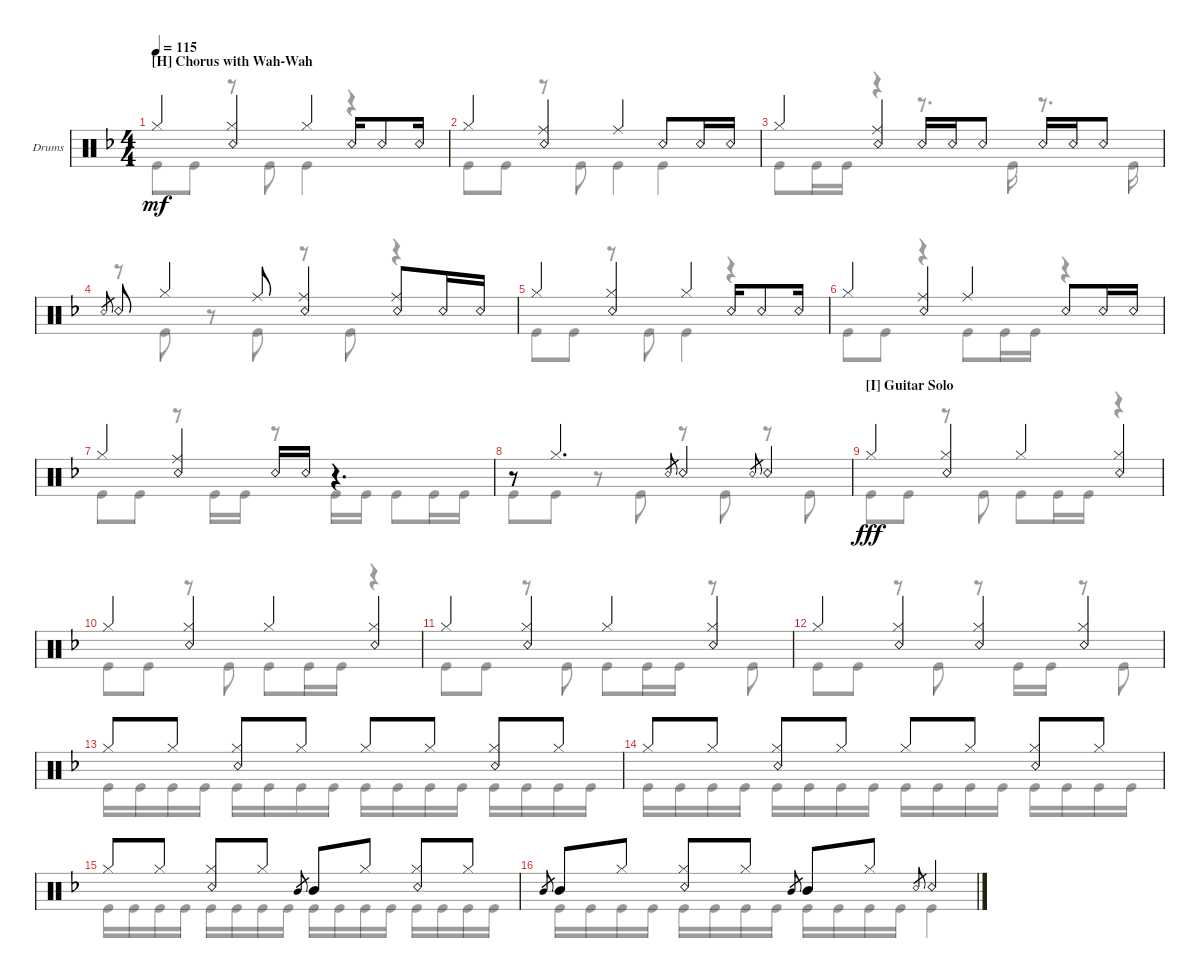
\defaultSystemsLayout 4
\bracketExtendMode groupsimilarinstruments
\firstSystemTrackNameOrientation horizontal
\otherSystemsTrackNameOrientation horizontal
\track ("Randy Castillo" "Drums") {instrument percussion}
\staff {score}
\articulation defaults
\voice
\ts (4 4)
\section ("H" "Chorus with Wah-Wah")
\tempo 115
\clef neutral
\ks f "Hi-Hat (closed)".4{dy mf}
("Hi-Hat (closed)" "Snare (rim shot)").4 "Hi-Hat (closed)".4 "Snare (rim shot)".16 "Snare (rim shot)".8 "Snare (rim shot)".16 |
"Hi-Hat (closed)".4 ("Snare (rim shot)" "Ride (middle)").4 "Ride (middle)".4 "Snare (rim shot)".8 "Snare (rim shot)".16 "Snare (rim shot)".16 |
"Hi-Hat (closed)".4 ("Ride (middle)" "Snare (rim shot)").4 "Snare (rim shot)".16 "Snare (rim shot)".16 "Snare (rim shot)".8 "Snare (rim shot)".16 "Snare (rim shot)".16 "Snare (rim shot)".8 |
"Snare (rim shot)".8{gr} "Snare (rim shot)".8 "Hi-Hat (closed)".4 "Ride (middle)".8 ("Ride (middle)" "Snare (rim shot)").4 ("Snare (rim shot)" "Ride (middle)").8 "Snare (rim shot)".16 "Snare (rim shot)".16 |
"Hi-Hat (closed)".4 ("Hi-Hat (closed)" "Snare (rim shot)").4 "Hi-Hat (closed)".4 "Snare (rim shot)".16 "Snare (rim shot)".8 "Snare (rim shot)".16 |
"Hi-Hat (closed)".4 ("Ride (middle)" "Snare (rim shot)").4 "Ride (middle)".4 "Snare (rim shot)".8 "Snare (rim shot)".16 "Snare (rim shot)".16 |
"Hi-Hat (closed)".4 ("Snare (rim shot)" "Ride (middle)").4 "Snare (rim shot)".16 "Snare (rim shot)".16 r.4{d} |
r.8 "Hi-Hat (closed)".4{d} "Snare (rim shot)".8{gr} "Snare (rim shot)".4 "Snare (rim shot)".8{gr} "Snare (rim shot)".4 |
\section ("I" "Guitar Solo")
"Hi-Hat (closed)".4{dy fff} ("Hi-Hat (closed)" "Snare (rim shot)").4 "Hi-Hat (closed)".4 ("Snare (rim shot)" "Hi-Hat (closed)").4 |
"Hi-Hat (closed)".4 ("Hi-Hat (closed)" "Snare (rim shot)").4 "Hi-Hat (closed)".4 ("Snare (rim shot)" "Hi-Hat (closed)").4 |
"Hi-Hat (closed)".4 ("Hi-Hat (closed)" "Snare (rim shot)").4 "Hi-Hat (closed)".4 ("Snare (rim shot)" "Hi-Hat (closed)").4 |
"Hi-Hat (closed)".4 ("Hi-Hat (closed)" "Snare (rim shot)").4 ("Hi-Hat (closed)" "Snare (rim shot)").4 ("Hi-Hat (closed)" "Snare (rim shot)").4 |
"Hi-Hat (closed)".8 "Hi-Hat (closed)".8 ("Hi-Hat (closed)" "Snare (rim shot)").8 "Hi-Hat (closed)".8 "Hi-Hat (closed)".8 "Hi-Hat (closed)".8 ("Hi-Hat (closed)" "Snare (rim shot)").8 "Hi-Hat (closed)".8 |
"Hi-Hat (closed)".8 "Hi-Hat (closed)".8 ("Hi-Hat (closed)" "Snare (rim shot)").8 "Hi-Hat (closed)".8 "Hi-Hat (closed)".8 "Hi-Hat (closed)".8 ("Hi-Hat (closed)" "Snare (rim shot)").8 "Hi-Hat (closed)".8 |
"Hi-Hat (closed)".8 "Hi-Hat (closed)".8 ("Hi-Hat (closed)" "Snare (rim shot)").8 "Hi-Hat (closed)".8 "Mid Tom (hit)".8{gr} "Mid Tom (hit)".8 "Hi-Hat (closed)".8 ("Hi-Hat (closed)" "Snare (rim shot)").8 "Hi-Hat (closed)".8 |
"Mid Tom (hit)".8{gr} "Mid Tom (hit)".8 "Hi-Hat (closed)".8 ("Hi-Hat (closed)" "Snare (rim shot)").8 "Hi-Hat (closed)".8 "Mid Tom (hit)".8{gr} "Mid Tom (hit)".8 "Hi-Hat (closed)".8 "Snare (rim shot)".8{gr} "Snare (rim shot)".4
\voice
\clef neutral
\ottava regular
\simile none
\ks f "Kick (hit)".8{dy mf} "Kick (hit)".8
r.8 "Kick (hit)".8 "Kick (hit)".4 r.4 |
"Kick (hit)".8 "Kick (hit)".8 r.8 "Kick (hit)".8 "Kick (hit)".4 "Kick (hit)".4 |
"Kick (hit)".8 "Kick (hit)".16 "Kick (hit)".16 r.4 r.8{d} "Kick (hit)".16 r.8{d} "Kick (hit)".16 |
r.8 "Kick (hit)".8 r.8 "Kick (hit)".8 r.8 "Kick (hit)".8 r.4 |
"Kick (hit)".8 "Kick (hit)".8 r.8 "Kick (hit)".8 "Kick (hit)".4 r.4 |
"Kick (hit)".8 "Kick (hit)".8 r.4 "Kick (hit)".8 "Kick (hit)".16 "Kick (hit)".16 r.4 |
"Kick (hit)".8 "Kick (hit)".8 r.8 "Kick (hit)".16 "Kick (hit)".16 r.8 "Kick (hit)".16 "Kick (hit)".16 "Kick (hit)".8 "Kick (hit)".16 "Kick (hit)".16 |
"Kick (hit)".8 "Kick (hit)".8 r.8 "Kick (hit)".8 r.8 "Kick (hit)".8 r.8 "Kick (hit)".8 |
"Kick (hit)".8{dy fff} "Kick (hit)".8 r.8 "Kick (hit)".8 "Kick (hit)".8 "Kick (hit)".16 "Kick (hit)".16 r.4 |
"Kick (hit)".8 "Kick (hit)".8 r.8 "Kick (hit)".8 "Kick (hit)".8 "Kick (hit)".16 "Kick (hit)".16 r.4 |
"Kick (hit)".8 "Kick (hit)".8 r.8 "Kick (hit)".8 "Kick (hit)".8 "Kick (hit)".16 "Kick (hit)".16 r.8 "Kick (hit)".8 |
"Kick (hit)".8 "Kick (hit)".8 r.8 "Kick (hit)".8 r.8 "Kick (hit)".16 "Kick (hit)".16 r.8 "Kick (hit)".8 |
"Kick (hit)".16 "Kick (hit)".16 "Kick (hit)".16 "Kick (hit)".16 "Kick (hit)".16 "Kick (hit)".16 "Kick (hit)".16 "Kick (hit)".16 "Kick (hit)".16 "Kick (hit)".16 "Kick (hit)".16 "Kick (hit)".16 "Kick (hit)".16 "Kick (hit)".16 "Kick (hit)".16 "Kick (hit)".16 |
"Kick (hit)".16 "Kick (hit)".16 "Kick (hit)".16 "Kick (hit)".16 "Kick (hit)".16 "Kick (hit)".16 "Kick (hit)".16 "Kick (hit)".16 "Kick (hit)".16 "Kick (hit)".16 "Kick (hit)".16 "Kick (hit)".16 "Kick (hit)".16 "Kick (hit)".16 "Kick (hit)".16 "Kick (hit)".16 |
"Kick (hit)".16 "Kick (hit)".16 "Kick (hit)".16 "Kick (hit)".16 "Kick (hit)".16 "Kick (hit)".16 "Kick (hit)".16 "Kick (hit)".16 "Kick (hit)".16 "Kick (hit)".16 "Kick (hit)".16 "Kick (hit)".16 "Kick (hit)".16 "Kick (hit)".16 "Kick (hit)".16 "Kick (hit)".16 |
"Kick (hit)".16 "Kick (hit)".16 "Kick (hit)".16 "Kick (hit)".16 "Kick (hit)".16 "Kick (hit)".16 "Kick (hit)".16 "Kick (hit)".16 "Kick (hit)".16 "Kick (hit)".16 "Kick (hit)".16 "Kick (hit)".16 "Kick (hit)".4
